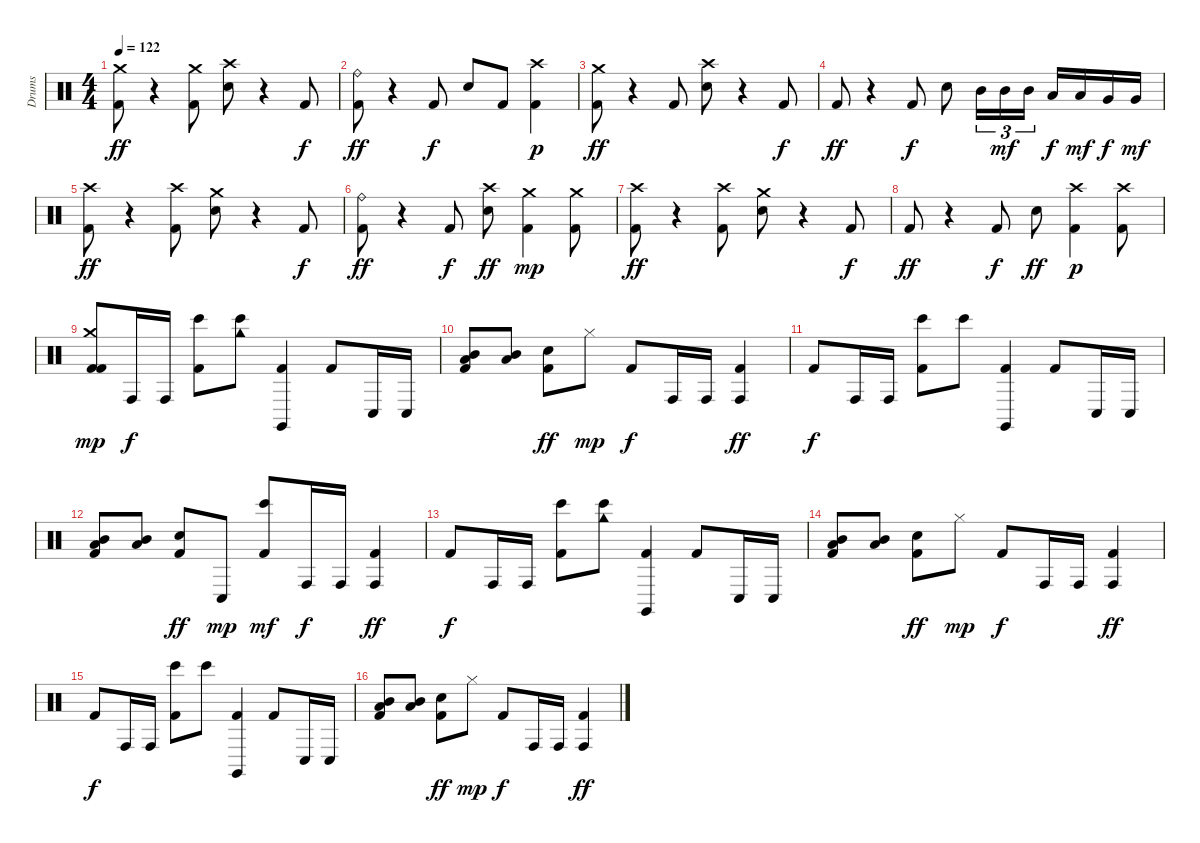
\track ("Drums" "Drums") {instrument percussion}
\staff {score}
\articulation defaults
\ts (4 4)
\tempo 122
\clef neutral
\ks c
("Crash medium (hit)" "Kick (hit) 2").8{dy ff} r.4 ("Crash medium (hit)" "Kick (hit) 2").8 ("Snare (hit) 2" "Crash high (hit)").8 r.4 "Kick (hit) 2".8{dy f} |
("Ride (bell)" "Kick (hit) 2").8{dy ff} r.4 "Kick (hit) 2".8{dy f} "Snare (hit) 2".8 "Kick (hit) 2".8 ("Crash high (hit)" "Kick (hit) 2").4{dy p} |
("Crash medium (hit)" "Kick (hit) 2").8{dy ff} r.4 "Kick (hit) 2".8 ("Snare (hit) 2" "Crash high (hit)").8 r.4 "Kick (hit) 2".8{dy f} |
"Kick (hit) 2".8{dy ff} r.4 "Kick (hit) 2".8{dy f} "Snare (hit) 2".8 "Mid Tom (hit)".16{tu (3 2)} "Mid Tom (hit)".16{tu (3 2) dy mf} "Mid Tom (hit)".16{tu (3 2)} "Low Tom (hit)".16{dy f} "Low Tom (hit)".16{dy mf} "Very Low Tom (hit)".16{dy f} "Very Low Tom (hit)".16{dy mf} |
("Crash high (hit)" "Kick (hit) 2").8{dy ff} r.4 ("Crash high (hit)" "Kick (hit) 2").8 ("Crash medium (hit)" "Snare (hit) 2").8 r.4 "Kick (hit) 2".8{dy f} |
("Ride (bell)" "Kick (hit) 2").8{dy ff} r.4 "Kick (hit) 2".8{dy f} ("Crash high (hit)" "Snare (hit) 2").8{dy ff} ("Crash medium (hit)" "Kick (hit) 2").4{dy mp} ("Crash medium (hit)" "Kick (hit) 2").8 |
("Crash high (hit)" "Kick (hit) 2").8{dy ff} r.4 ("Crash high (hit)" "Kick (hit) 2").8 ("Crash medium (hit)" "Snare (hit) 2").8 r.4 "Kick (hit) 2".8{dy f} |
"Kick (hit) 2".8{dy ff} r.4 "Kick (hit) 2".8{dy f} "Snare (hit) 2".8{dy ff} ("Kick (hit) 2" "Crash high (hit)").4{dy p} ("Kick (hit) 2" "Crash high (hit)").8 |
("Crash medium (hit)" "Kick (hit) 2" "Kick (hit) 2").8{dy mp balance 11} "Conga high (hit)".16{dy f} "Conga high (hit)".16 ("Bongo High (hit)" "Kick (hit) 2").8 ("Bongo High (hit)" "Cowbell high (hit)").8 ("Kick (hit) 2" "Claves (hit)").4 "Kick (hit) 2".8 "Conga low (hit)".16 "Conga low (hit)".16 |
("Mid Tom (hit)" "Kick (hit) 2" "Low Floor Tom (hit)").8 ("Mid Tom (hit)" "Low Floor Tom (hit)").8 ("Kick (hit) 2" "Snare (hit) 2").8{dy ff} "Hi-Hat (closed)".8{dy mp} "Kick (hit) 2".8{dy f} "Conga high (hit)".16 "Conga high (hit)".16 ("Conga high (hit)" "Kick (hit) 2").4{dy ff} |
"Kick (hit) 2".8{dy f} "Conga high (hit)".16 "Conga high (hit)".16 ("Bongo High (hit)" "Kick (hit) 2").8 "Bongo High (hit)".8 ("Kick (hit) 2" "Claves (hit)").4 "Kick (hit) 2".8 "Conga low (hit)".16 "Conga low (hit)".16 |
("Mid Tom (hit)" "Kick (hit) 2" "Low Floor Tom (hit)").8 ("Mid Tom (hit)" "Low Floor Tom (hit)").8 ("Kick (hit) 2" "Snare (hit) 2").8{dy ff} "Conga low (hit)".8{dy mp balance 8} ("Kick (hit) 2" "Bongo High (hit)").8{dy mf} "Conga high (hit)".16{dy f} "Conga high (hit)".16 ("Conga high (hit)" "Kick (hit) 2").4{dy ff} |
"Kick (hit) 2".8{dy f balance 11} "Conga high (hit)".16 "Conga high (hit)".16 ("Bongo High (hit)" "Kick (hit) 2").8 ("Bongo High (hit)" "Cowbell high (hit)").8 ("Kick (hit) 2" "Claves (hit)").4 "Kick (hit) 2".8 "Conga low (hit)".16 "Conga low (hit)".16 |
("Mid Tom (hit)" "Kick (hit) 2" "Low Floor Tom (hit)").8 ("Mid Tom (hit)" "Low Floor Tom (hit)").8 ("Kick (hit) 2" "Snare (hit) 2").8{dy ff} "Hi-Hat (closed)".8{dy mp} "Kick (hit) 2".8{dy f} "Conga high (hit)".16 "Conga high (hit)".16 ("Conga high (hit)" "Kick (hit) 2").4{dy ff} |
"Kick (hit) 2".8{dy f} "Conga high (hit)".16 "Conga high (hit)".16 ("Bongo High (hit)" "Kick (hit) 2").8 "Bongo High (hit)".8 ("Kick (hit) 2" "Claves (hit)").4 "Kick (hit) 2".8 "Conga low (hit)".16 "Conga low (hit)".16 |
("Mid Tom (hit)" "Kick (hit) 2" "Low Floor Tom (hit)").8 ("Mid Tom (hit)" "Low Floor Tom (hit)").8 ("Kick (hit) 2" "Snare (hit) 2").8{dy ff} "Hi-Hat (closed)".8{dy mp} "Kick (hit) 2".8{dy f} "Conga high (hit)".16 "Conga high (hit)".16 ("Conga high (hit)" "Kick (hit) 2").4{dy ff}
